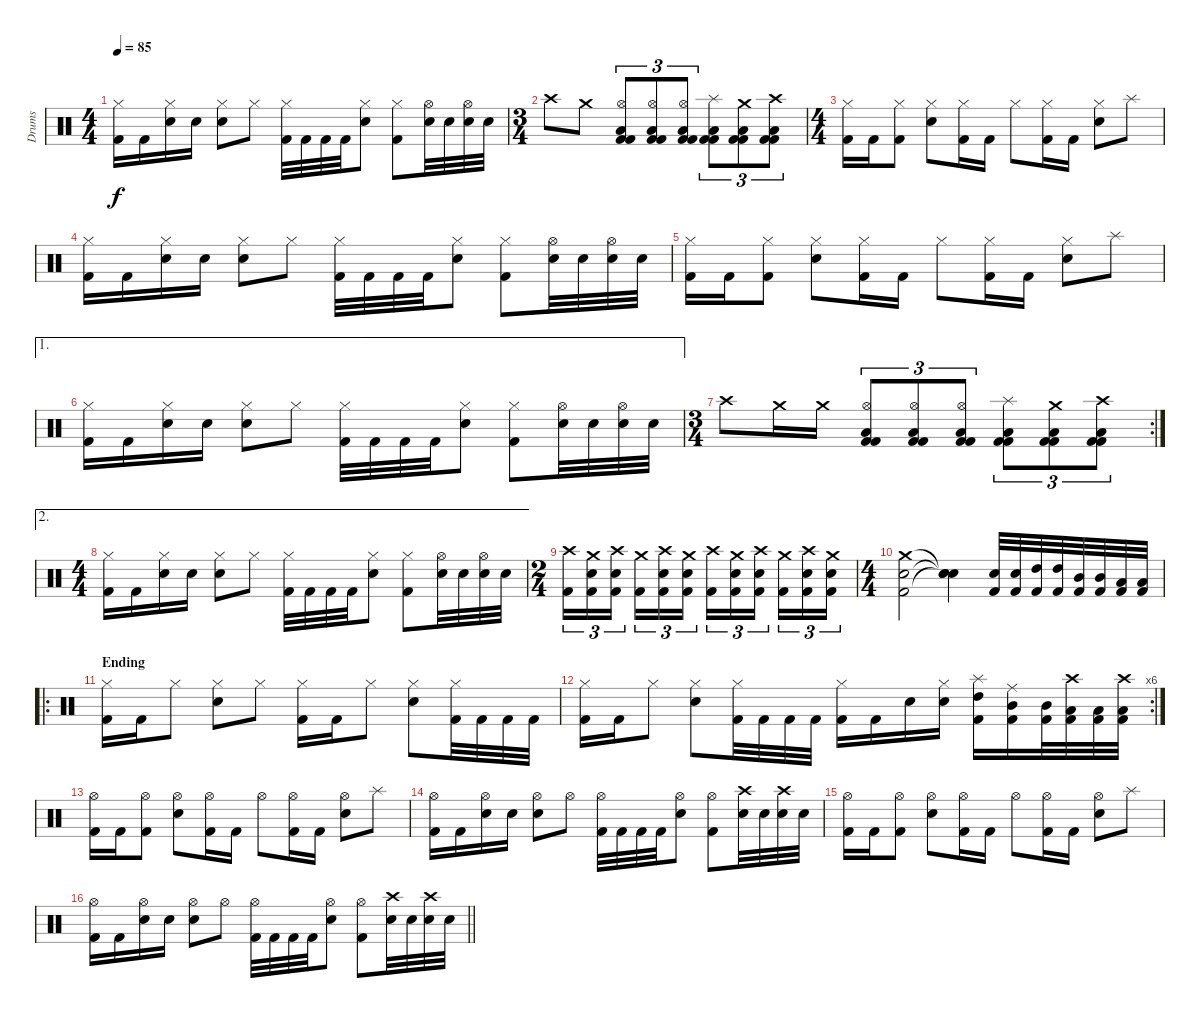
\track ("Drums" "Drums") {instrument percussion}
\staff {score}
\articulation defaults
\ts (4 4)
\tempo 85
\clef neutral
\ks c
("Hi-Hat (closed)" "Kick (hit) 2").16{dy f} "Kick (hit) 2".16 ("Hi-Hat (closed)" "Snare (hit) 2").16 "Snare (hit) 2".16 ("Hi-Hat (closed)" "Snare (hit) 2").8 "Hi-Hat (closed)".8 ("Hi-Hat (closed)" "Kick (hit) 2").32 "Kick (hit) 2".32 "Kick (hit) 2".32 "Kick (hit) 2".32 ("Hi-Hat (closed)" "Snare (hit) 2").8 ("Hi-Hat (closed)" "Kick (hit) 2").8 ("Hi-Hat (open)" "Snare (hit) 2").32 "Snare (hit) 2".32 ("Hi-Hat (open)" "Snare (hit) 2").32 "Snare (hit) 2".32 |
\ts (3 4)
"Crash high (hit)".8 "Crash medium (hit)".8 ("Hi-Hat (open)" "Low Floor Tom (hit)" "Kick (hit) 2" "Kick (hit) 2").8{tu (3 2)} ("Hi-Hat (open)" "Low Floor Tom (hit)" "Kick (hit) 2" "Kick (hit) 2").8{tu (3 2)} ("Hi-Hat (open)" "Low Floor Tom (hit)" "Kick (hit) 2" "Kick (hit) 2").8{tu (3 2)} ("Splash (hit)" "Low Floor Tom (hit)" "Kick (hit) 2" "Kick (hit) 2").8{tu (3 2)} ("Crash medium (hit)" "Low Floor Tom (hit)" "Kick (hit) 2" "Kick (hit) 2").8{tu (3 2)} ("Crash high (hit)" "Low Floor Tom (hit)" "Kick (hit) 2" "Kick (hit) 2").8{tu (3 2)} |
\ts (4 4)
("Hi-Hat (closed)" "Kick (hit) 2").16 "Kick (hit) 2".16 ("Hi-Hat (closed)" "Kick (hit) 2").8 ("Hi-Hat (closed)" "Snare (hit) 2").8 ("Hi-Hat (closed)" "Kick (hit) 2").16 "Kick (hit) 2".16 "Hi-Hat (closed)".8 ("Hi-Hat (closed)" "Kick (hit) 2").16 "Kick (hit) 2".16 ("Hi-Hat (closed)" "Snare (hit) 2").8 "Splash (hit)".8 |
("Hi-Hat (closed)" "Kick (hit) 2").16 "Kick (hit) 2".16 ("Hi-Hat (closed)" "Snare (hit) 2").16 "Snare (hit) 2".16 ("Hi-Hat (closed)" "Snare (hit) 2").8 "Hi-Hat (closed)".8 ("Hi-Hat (closed)" "Kick (hit) 2").32 "Kick (hit) 2".32 "Kick (hit) 2".32 "Kick (hit) 2".32 ("Hi-Hat (closed)" "Snare (hit) 2").8 ("Hi-Hat (closed)" "Kick (hit) 2").8 ("Hi-Hat (open)" "Snare (hit) 2").32 "Snare (hit) 2".32 ("Hi-Hat (open)" "Snare (hit) 2").32 "Snare (hit) 2".32 |
("Hi-Hat (closed)" "Kick (hit) 2").16 "Kick (hit) 2".16 ("Hi-Hat (closed)" "Kick (hit) 2").8 ("Hi-Hat (closed)" "Snare (hit) 2").8 ("Hi-Hat (closed)" "Kick (hit) 2").16 "Kick (hit) 2".16 "Hi-Hat (closed)".8 ("Hi-Hat (closed)" "Kick (hit) 2").16 "Kick (hit) 2".16 ("Hi-Hat (closed)" "Snare (hit) 2").8 "Splash (hit)".8 |
\ae 1
("Hi-Hat (closed)" "Kick (hit) 2").16 "Kick (hit) 2".16 ("Hi-Hat (closed)" "Snare (hit) 2").16 "Snare (hit) 2".16 ("Hi-Hat (closed)" "Snare (hit) 2").8 "Hi-Hat (closed)".8 ("Hi-Hat (closed)" "Kick (hit) 2").32 "Kick (hit) 2".32 "Kick (hit) 2".32 "Kick (hit) 2".32 ("Hi-Hat (closed)" "Snare (hit) 2").8 ("Hi-Hat (closed)" "Kick (hit) 2").8 ("Hi-Hat (open)" "Snare (hit) 2").32 "Snare (hit) 2".32 ("Hi-Hat (open)" "Snare (hit) 2").32 "Snare (hit) 2".32 |
\rc 2
\ts (3 4)
"Crash high (hit)".8 "Crash medium (hit)".16 "Crash medium (hit)".16 ("Hi-Hat (open)" "Low Floor Tom (hit)" "Kick (hit) 2" "Kick (hit) 2").8{tu (3 2)} ("Hi-Hat (open)" "Low Floor Tom (hit)" "Kick (hit) 2" "Kick (hit) 2").8{tu (3 2)} ("Hi-Hat (open)" "Low Floor Tom (hit)" "Kick (hit) 2" "Kick (hit) 2").8{tu (3 2)} ("Splash (hit)" "Low Floor Tom (hit)" "Kick (hit) 2" "Kick (hit) 2").8{tu (3 2)} ("Crash medium (hit)" "Low Floor Tom (hit)" "Kick (hit) 2" "Kick (hit) 2").8{tu (3 2)} ("Crash high (hit)" "Low Floor Tom (hit)" "Kick (hit) 2" "Kick (hit) 2").8{tu (3 2)} |
\ae 2
\ts (4 4)
("Hi-Hat (closed)" "Kick (hit) 2").16 "Kick (hit) 2".16 ("Hi-Hat (closed)" "Snare (hit) 2").16 "Snare (hit) 2".16 ("Hi-Hat (closed)" "Snare (hit) 2").8 "Hi-Hat (closed)".8 ("Hi-Hat (closed)" "Kick (hit) 2").32 "Kick (hit) 2".32 "Kick (hit) 2".32 "Kick (hit) 2".32 ("Hi-Hat (closed)" "Snare (hit) 2").8 ("Hi-Hat (closed)" "Kick (hit) 2").8 ("Hi-Hat (open)" "Snare (hit) 2").32 "Snare (hit) 2".32 ("Hi-Hat (open)" "Snare (hit) 2").32 "Snare (hit) 2".32 |
\ts (2 4)
("Crash high (hit)" "Kick (hit) 2").16{tu (3 2)} ("Crash medium (hit)" "Snare (hit) 2" "Kick (hit) 2").16{tu (3 2)} ("Crash high (hit)" "Snare (hit) 2" "Kick (hit) 2").16{tu (3 2)} ("Crash medium (hit)" "Kick (hit) 2").16{tu (3 2)} ("Crash high (hit)" "Snare (hit) 2" "Kick (hit) 2").16{tu (3 2)} ("Crash medium (hit)" "Snare (hit) 2" "Kick (hit) 2").16{tu (3 2)} ("Crash high (hit)" "Kick (hit) 2").16{tu (3 2)} ("Crash medium (hit)" "Snare (hit) 2" "Kick (hit) 2").16{tu (3 2)} ("Crash high (hit)" "Snare (hit) 2" "Kick (hit) 2").16{tu (3 2)} ("Crash medium (hit)" "Kick (hit) 2").16{tu (3 2)} ("Crash high (hit)" "Snare (hit) 2" "Kick (hit) 2").16{tu (3 2)} ("Crash medium (hit)" "Snare (hit) 2" "Kick (hit) 2").16{tu (3 2)} |
\ts (4 4)
("Crash medium (hit)" "Snare (hit) 2" "Kick (hit) 2").2 ("Snare (hit)"{t} "Snare (hit)"{t} "Snare (hit)"{t}).4 ("Snare (hit) 2" "Kick (hit) 2").32 ("Snare (hit) 2" "Kick (hit) 2").32 ("High Tom (hit)" "Kick (hit) 2").32 ("High Tom (hit)" "Kick (hit) 2").32 ("Mid Tom (hit)" "Kick (hit) 2").32 ("Mid Tom (hit)" "Kick (hit) 2").32 ("Low Floor Tom (hit)" "Kick (hit) 2").32 ("Low Floor Tom (hit)" "Kick (hit) 2").32 |
\ro
\section ("" "Ending")
("Hi-Hat (closed)" "Kick (hit) 2").16 "Kick (hit) 2".16 "Hi-Hat (closed)".8 ("Hi-Hat (closed)" "Snare (hit) 2").8 "Hi-Hat (closed)".8 ("Hi-Hat (closed)" "Kick (hit) 2").16 "Kick (hit) 2".16 "Hi-Hat (closed)".8 ("Hi-Hat (closed)" "Snare (hit) 2").8 ("Hi-Hat (closed)" "Kick (hit) 2").32 "Kick (hit) 2".32 "Kick (hit) 2".32 "Kick (hit) 2".32 |
\rc 6
("Hi-Hat (closed)" "Kick (hit) 2").16 "Kick (hit) 2".16 "Hi-Hat (closed)".8 ("Hi-Hat (closed)" "Snare (hit) 2").8 ("Hi-Hat (closed)" "Kick (hit) 2").32 "Kick (hit) 2".32 "Kick (hit) 2".32 "Kick (hit) 2".32 ("Hi-Hat (closed)" "Kick (hit) 2").16 "Kick (hit) 2".16 "Snare (hit) 2".16 ("Hi-Hat (closed)" "Snare (hit) 2").16 ("Splash (hit)" "High Tom (hit)" "Kick (hit) 2").16 ("Ride (middle)" "Mid Tom (hit)" "Kick (hit) 2").16 ("Mid Tom (hit)" "Kick (hit) 2").32 ("Crash high (hit)" "Low Tom (hit)" "Kick (hit) 2").32 ("Low Tom (hit)" "Kick (hit) 2").32 ("Crash high (hit)" "Low Tom (hit)" "Kick (hit) 2").32 |
("Hi-Hat (open)" "Kick (hit) 2").16{volume 1} "Kick (hit) 2".16 ("Hi-Hat (open)" "Kick (hit) 2").8 ("Hi-Hat (open)" "Snare (hit) 2").8 ("Hi-Hat (open)" "Kick (hit) 2").16 "Kick (hit) 2".16 "Hi-Hat (open)".8 ("Hi-Hat (open)" "Kick (hit) 2").16 "Kick (hit) 2".16 ("Hi-Hat (open)" "Snare (hit) 2").8 "Splash (hit)".8 |
("Hi-Hat (open)" "Kick (hit) 2").16 "Kick (hit) 2".16 ("Hi-Hat (open)" "Snare (hit) 2").16 "Snare (hit) 2".16 ("Hi-Hat (open)" "Snare (hit) 2").8 "Hi-Hat (open)".8 ("Hi-Hat (open)" "Kick (hit) 2").32 "Kick (hit) 2".32 "Kick (hit) 2".32 "Kick (hit) 2".32 ("Hi-Hat (open)" "Snare (hit) 2").8 ("Hi-Hat (open)" "Kick (hit) 2").8 ("Crash high (hit)" "Snare (hit) 2").32 "Snare (hit) 2".32 ("Crash high (hit)" "Snare (hit) 2").32 "Snare (hit) 2".32 |
("Hi-Hat (open)" "Kick (hit) 2").16 "Kick (hit) 2".16 ("Hi-Hat (open)" "Kick (hit) 2").8 ("Hi-Hat (open)" "Snare (hit) 2").8 ("Hi-Hat (open)" "Kick (hit) 2").16 "Kick (hit) 2".16 "Hi-Hat (open)".8 ("Hi-Hat (open)" "Kick (hit) 2").16 "Kick (hit) 2".16 ("Hi-Hat (open)" "Snare (hit) 2").8 "Splash (hit)".8 |
\barLineRight lightlight
("Hi-Hat (open)" "Kick (hit) 2").16 "Kick (hit) 2".16 ("Hi-Hat (open)" "Snare (hit) 2").16 "Snare (hit) 2".16 ("Hi-Hat (open)" "Snare (hit) 2").8 "Hi-Hat (open)".8 ("Hi-Hat (open)" "Kick (hit) 2").32 "Kick (hit) 2".32 "Kick (hit) 2".32 "Kick (hit) 2".32 ("Hi-Hat (open)" "Snare (hit) 2").8 ("Hi-Hat (open)" "Kick (hit) 2").8 ("Crash high (hit)" "Snare (hit) 2").32 "Snare (hit) 2".32 ("Crash high (hit)" "Snare (hit) 2").32 "Snare (hit) 2".32
